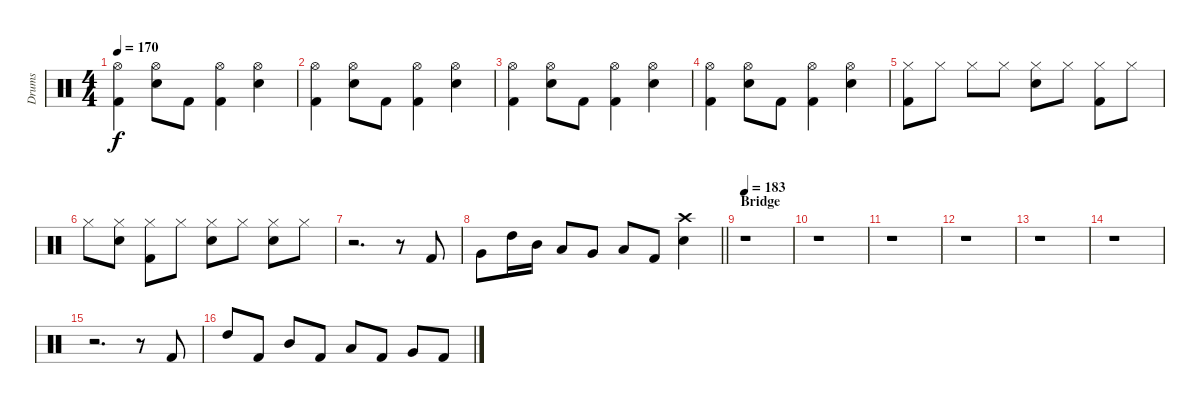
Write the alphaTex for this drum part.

\track ("Drums" "Drums") {instrument percussion}
\staff {score}
\articulation defaults
\ts (4 4)
\tempo 170
\clef neutral
\ks c
("Hi-Hat (open)" "Kick (hit) 2").4{dy f} ("Hi-Hat (open)" "Electric Snare (hit)").8 "Kick (hit) 2".8 ("Hi-Hat (open)" "Kick (hit) 2").4 ("Hi-Hat (open)" "Electric Snare (hit)").4 |
("Hi-Hat (open)" "Kick (hit) 2").4 ("Hi-Hat (open)" "Electric Snare (hit)").8 "Kick (hit) 2".8 ("Hi-Hat (open)" "Kick (hit) 2").4 ("Hi-Hat (open)" "Electric Snare (hit)").4 |
("Hi-Hat (open)" "Kick (hit) 2").4 ("Hi-Hat (open)" "Electric Snare (hit)").8 "Kick (hit) 2".8 ("Hi-Hat (open)" "Kick (hit) 2").4 ("Hi-Hat (open)" "Electric Snare (hit)").4 |
("Hi-Hat (open)" "Kick (hit) 2").4 ("Hi-Hat (open)" "Electric Snare (hit)").8 "Kick (hit) 2".8 ("Hi-Hat (open)" "Kick (hit) 2").4 ("Hi-Hat (open)" "Electric Snare (hit)").4 |
("Hi-Hat (closed)" "Kick (hit) 2").8 "Hi-Hat (closed)".8 "Hi-Hat (closed)".8 "Hi-Hat (closed)".8 ("Hi-Hat (closed)" "Electric Snare (hit)").8 "Hi-Hat (closed)".8 ("Hi-Hat (closed)" "Kick (hit) 2").8 "Hi-Hat (closed)".8 |
"Hi-Hat (closed)".8 ("Hi-Hat (closed)" "Electric Snare (hit)").8 ("Hi-Hat (closed)" "Kick (hit) 2").8 "Hi-Hat (closed)".8 ("Hi-Hat (closed)" "Electric Snare (hit)").8 "Hi-Hat (closed)".8 ("Hi-Hat (closed)" "Electric Snare (hit)").8 "Hi-Hat (closed)".8 |
r.2{d} r.8 "Kick (hit) 2".8 |
\barLineRight lightlight "Very Low Tom (hit)".8 "High Tom (hit)".16 "Mid Tom (hit)".16 "Low Tom (hit)".8 "Very Low Tom (hit)".8 "Low Floor Tom (hit)".8 "Kick (hit) 2".8
("Crash high (hit)" "Electric Snare (hit)").4 |
\section ("" "Bridge")
\tempo 183
r.1 |
r.1 |
r.1 |
r.1 |
r.1 |
r.1 |
r.2{d} r.8 "Kick (hit) 2".8 |
"High Tom (hit)".8 "Kick (hit) 2".8 "Mid Tom (hit)".8 "Kick (hit) 2".8 "Low Tom (hit)".8 "Kick (hit) 2".8 "Very Low Tom (hit)".8 "Kick (hit) 2".8
